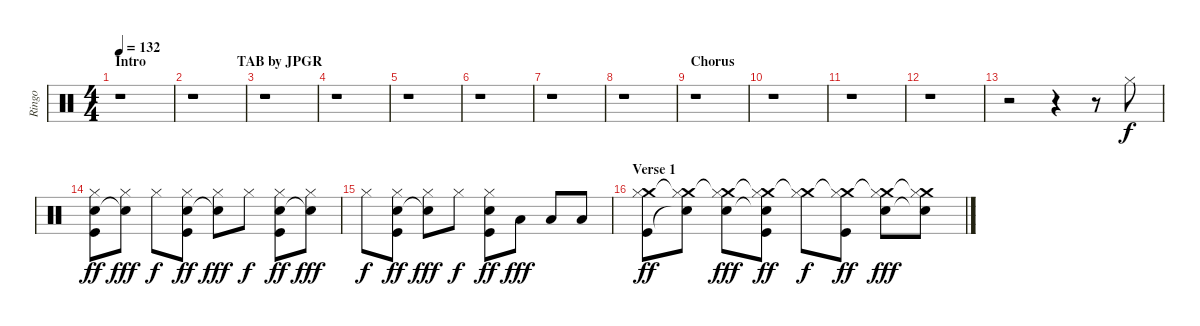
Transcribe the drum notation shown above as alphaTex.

\track ("Ringo" "Ringo") {instrument percussion}
\staff {score}
\articulation defaults
\ts (4 4)
\section ("" "Intro                          TAB by JPGR")
\tempo 132
\clef neutral
\ks c
r.1{dy f} |
r.1 |
r.1 |
r.1 |
r.1 |
r.1 |
r.1 |
r.1 |
\section ("" "Chorus")
r.1 |
r.1 |
r.1 |
r.1 |
r.2 r.4 r.8 "Hi-Hat (closed)".8 |
("Hi-Hat (closed)" "Snare (hit) 2" "Kick (hit)").8{dy ff} ("Hi-Hat (closed)" "Snare (hit)"{t}).8{dy fff} "Hi-Hat (closed)".8{dy f} ("Hi-Hat (closed)" "Snare (hit) 2" "Kick (hit)").8{dy ff} ("Hi-Hat (closed)" "Snare (hit)"{t}).8{dy fff} "Hi-Hat (closed)".8{dy f} ("Hi-Hat (closed)" "Snare (hit) 2" "Kick (hit)").8{dy ff} ("Hi-Hat (closed)" "Snare (hit)"{t}).8{dy fff} |
"Hi-Hat (closed)".8{dy f} ("Hi-Hat (closed)" "Snare (hit) 2" "Kick (hit)").8{dy ff} ("Hi-Hat (closed)" "Snare (hit)"{t}).8{dy fff} "Hi-Hat (closed)".8{dy f} ("Hi-Hat (closed)" "Snare (hit) 2" "Kick (hit)").8{dy ff} "Low Floor Tom (hit)".8{dy fff} "Low Floor Tom (hit)".8 "Low Floor Tom (hit)".8 |
\section ("" "Verse 1")
("Crash medium (hit)" "Hi-Hat (closed)" "Kick (hit)").8{dy ff} ("Crash medium (hit)"{t} "Hi-Hat (closed)" "Snare (hit)"{t}).8 ("Crash medium (hit)"{t} "Hi-Hat (closed)" "Snare (hit) 2").8{dy fff} ("Crash medium (hit)"{t} "Hi-Hat (closed)" "Snare (hit)"{t} "Kick (hit)").8{dy ff} ("Crash medium (hit)"{t} "Hi-Hat (closed)").8{dy f} ("Crash medium (hit)"{t} "Hi-Hat (closed)" "Kick (hit)").8{dy ff} ("Crash medium (hit)"{t} "Hi-Hat (closed)" "Snare (hit) 2").8{dy fff} ("Crash medium (hit)"{t} "Hi-Hat (closed)" "Snare (hit)"{t}).8
